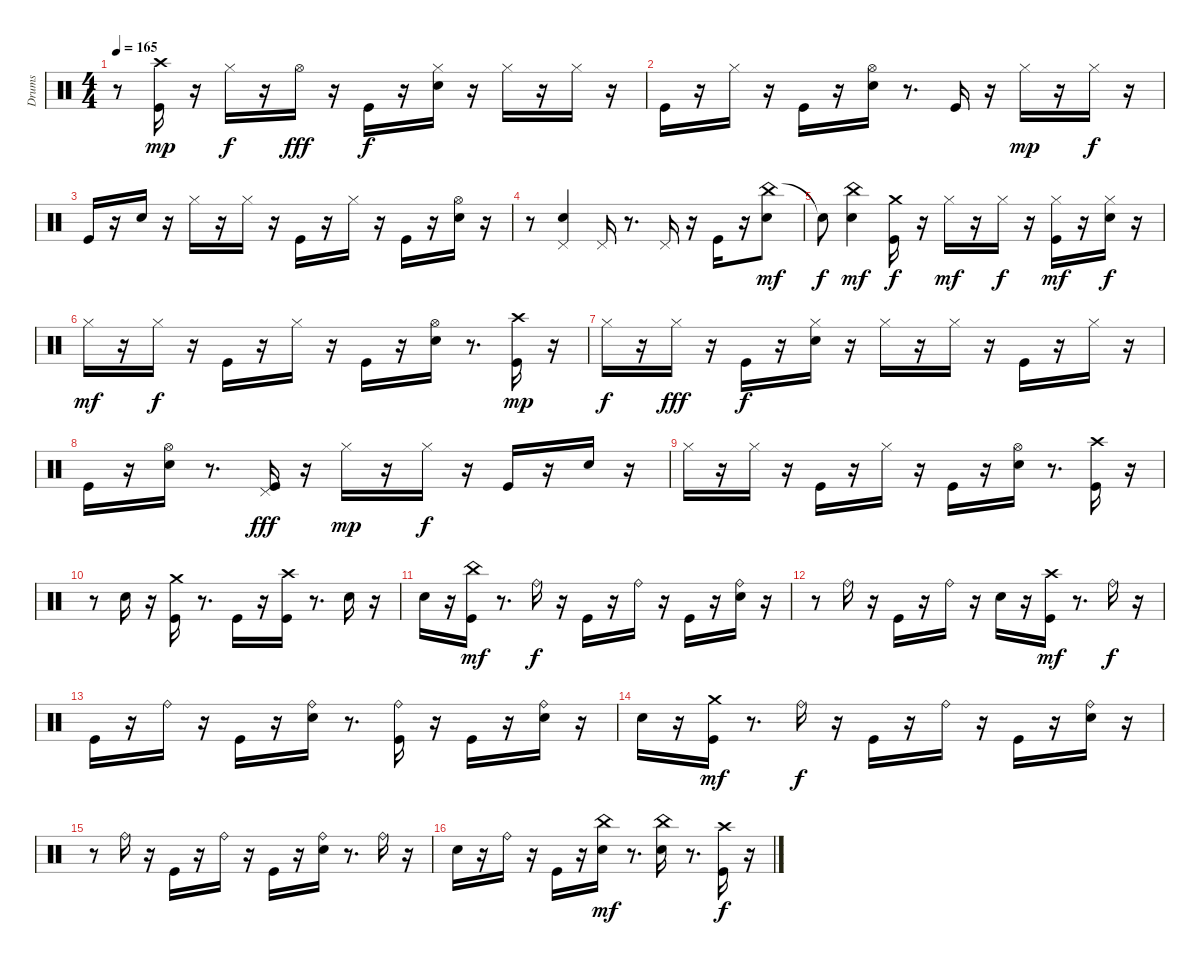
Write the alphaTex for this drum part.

\track ("Drums" "Drums") {instrument percussion}
\staff {score}
\articulation defaults
\ts (4 4)
\tempo 165
\clef neutral
\ks c
r.8{dy f} ("Kick (hit)" "Crash high (hit)").16{dy mp} r.16 "Hi-Hat (closed)".16{dy f} r.16 "Hi-Hat (open)".16{dy fff} r.16 "Kick (hit)".16{dy f} r.16 ("Hi-Hat (closed)" "Electric Snare (hit)").16 r.16 "Hi-Hat (closed)".16 r.16 "Hi-Hat (closed)".16 r.16 |
"Kick (hit)".16 r.16 "Hi-Hat (closed)".16 r.16 "Kick (hit)".16 r.16 ("Electric Snare (hit)" "Hi-Hat (open)").16 r.8{d} "Kick (hit)".16 r.16 "Hi-Hat (closed)".16{dy mp} r.16 "Hi-Hat (closed)".16{dy f} r.16 |
"Kick (hit)".16 r.16 "Electric Snare (hit)".16 r.16 "Hi-Hat (closed)".16 r.16 "Hi-Hat (closed)".16 r.16 "Kick (hit)".16 r.16 "Hi-Hat (closed)".16 r.16 "Kick (hit)".16 r.16 ("Hi-Hat (open)" "Electric Snare (hit)").16 r.16 |
r.8 ("Pedal Hi-Hat (hit)" "Electric Snare (hit)").4 "Pedal Hi-Hat (hit)".16 r.8{d} "Pedal Hi-Hat (hit)".16 r.16 "Kick (hit)".16 r.16 ("China (hit)" "Electric Snare (hit)").8{dy mf} |
"Snare (hit)"{t}.8{dy f} ("Electric Snare (hit)" "China (hit)").4{dy mf} ("Kick (hit)" "Crash medium (hit)").16{dy f} r.16 "Hi-Hat (closed)".16{dy mf} r.16 "Hi-Hat (closed)".16{dy f} r.16 ("Kick (hit)" "Hi-Hat (closed)").16{dy mf} r.16 ("Hi-Hat (closed)" "Electric Snare (hit)").16{dy f} r.16 |
"Hi-Hat (closed)".16{dy mf} r.16 "Hi-Hat (closed)".16{dy f} r.16 "Kick (hit)".16 r.16 "Hi-Hat (closed)".16 r.16 "Kick (hit)".16 r.16 ("Electric Snare (hit)" "Hi-Hat (open)").16 r.8{d} ("Kick (hit)" "Crash high (hit)").16{dy mp} r.16 |
"Hi-Hat (closed)".16{dy f} r.16 "Hi-Hat (closed)".16{dy fff} r.16 "Kick (hit)".16{dy f} r.16 ("Hi-Hat (closed)" "Electric Snare (hit)").16 r.16 "Hi-Hat (closed)".16 r.16 "Hi-Hat (closed)".16 r.16 "Kick (hit)".16 r.16 "Hi-Hat (closed)".16 r.16 |
"Kick (hit)".16 r.16 ("Electric Snare (hit)" "Hi-Hat (open)").16 r.8{d} ("Pedal Hi-Hat (hit)" "Kick (hit)").16{dy fff} r.16 "Hi-Hat (closed)".16{dy mp} r.16 "Hi-Hat (closed)".16{dy f} r.16 "Kick (hit)".16 r.16 "Electric Snare (hit)".16 r.16 |
"Hi-Hat (closed)".16 r.16 "Hi-Hat (closed)".16 r.16 "Kick (hit)".16 r.16 "Hi-Hat (closed)".16 r.16 "Kick (hit)".16 r.16 ("Hi-Hat (open)" "Electric Snare (hit)").16 r.8{d} ("Kick (hit)" "Crash high (hit)").16 r.16 |
r.8 "Electric Snare (hit)".16 r.16 ("Crash medium (hit)" "Kick (hit)").16 r.8{d} "Kick (hit)".16 r.16 ("Crash high (hit)" "Kick (hit)").16 r.8{d} "Electric Snare (hit)".16 r.16 |
"Electric Snare (hit)".16 r.16 ("Kick (hit)" "China (hit)").16{dy mf} r.8{d} "Ride (bell)".16{dy f} r.16 "Kick (hit)".16 r.16 "Ride (bell)".16 r.16 "Kick (hit)".16 r.16 ("Electric Snare (hit)" "Ride (bell)").16 r.16 |
r.8 "Ride (bell)".16 r.16 "Kick (hit)".16 r.16 "Ride (bell)".16 r.16 "Electric Snare (hit)".16 r.16 ("Kick (hit)" "Crash high (hit)").16{dy mf} r.8{d} "Ride (bell)".16{dy f} r.16 |
"Kick (hit)".16 r.16 "Ride (bell)".16 r.16 "Kick (hit)".16 r.16 ("Ride (bell)" "Electric Snare (hit)").16 r.8{d} ("Kick (hit)" "Ride (bell)").16 r.16 "Kick (hit)".16 r.16 ("Electric Snare (hit)" "Ride (bell)").16 r.16 |
"Electric Snare (hit)".16 r.16 ("Kick (hit)" "Crash medium (hit)").16{dy mf} r.8{d} "Ride (bell)".16{dy f} r.16 "Kick (hit)".16 r.16 "Ride (bell)".16 r.16 "Kick (hit)".16 r.16 ("Electric Snare (hit)" "Ride (bell)").16 r.16 |
r.8 "Ride (bell)".16 r.16 "Kick (hit)".16 r.16 "Ride (bell)".16 r.16 "Kick (hit)".16 r.16 ("Electric Snare (hit)" "Ride (bell)").16 r.8{d} "Ride (bell)".16 r.16 |
"Electric Snare (hit)".16 r.16 "Ride (bell)".16 r.16 "Kick (hit)".16 r.16 ("China (hit)" "Electric Snare (hit)").16{dy mf} r.8{d} ("China (hit)" "Electric Snare (hit)").16 r.8{d} ("Kick (hit)" "Crash high (hit)").16{dy f} r.16
